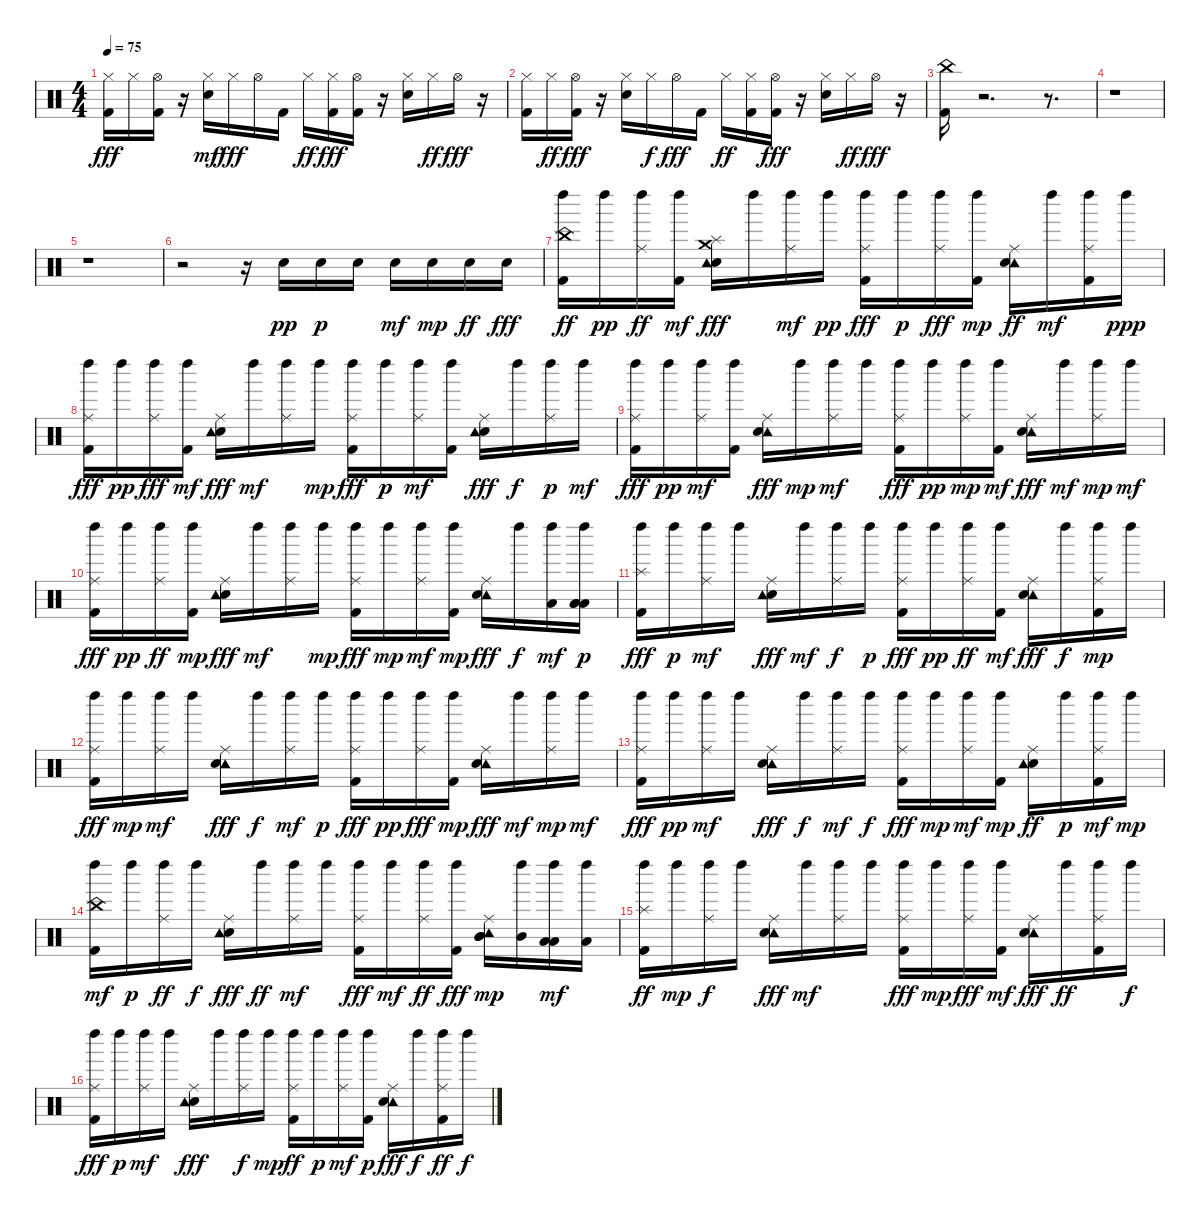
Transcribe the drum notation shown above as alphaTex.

\track "" {instrument percussion}
\staff {score}
\articulation defaults
\ts (4 4)
\tempo 75
\clef neutral
\ks c
("Hi-Hat (closed)" "Kick (hit) 2").16{dy fff} "Hi-Hat (closed)".16 ("Kick (hit) 2" "Hi-Hat (open)").16 r.16 ("Electric Snare (hit)" "Hi-Hat (closed)").16{dy mf} "Hi-Hat (closed)".16{dy fff} "Hi-Hat (open)".16 "Kick (hit) 2".16 "Hi-Hat (closed)".16{dy ff} ("Kick (hit) 2" "Hi-Hat (closed)").16{dy fff} ("Hi-Hat (open)" "Kick (hit) 2").16 r.16 ("Hi-Hat (closed)" "Electric Snare (hit)").16 "Hi-Hat (closed)".16{dy ff} "Hi-Hat (open)".16{dy fff} r.16 |
("Kick (hit) 2" "Hi-Hat (closed)").16 "Hi-Hat (closed)".16{dy ff} ("Kick (hit) 2" "Hi-Hat (open)").16{dy fff} r.16 ("Hi-Hat (closed)" "Electric Snare (hit)").16 "Hi-Hat (closed)".16{dy f} "Hi-Hat (open)".16{dy fff} "Kick (hit) 2".16 "Hi-Hat (closed)".16{dy ff} ("Hi-Hat (closed)" "Kick (hit) 2").16 ("Kick (hit) 2" "Hi-Hat (open)").16{dy fff} r.16 ("Hi-Hat (closed)" "Electric Snare (hit)").16 "Hi-Hat (closed)".16{dy ff} "Hi-Hat (open)".16{dy fff} r.16 |
("China (hit)" "Kick (hit) 2").16 r.2{d} r.8{d} |
r.1 |
r.1 |
r.2 r.16 "Electric Snare (hit)".16{dy pp} "Electric Snare (hit)".16{dy p} "Electric Snare (hit)".16 "Electric Snare (hit)".16{dy mf} "Electric Snare (hit)".16{dy mp} "Electric Snare (hit)".16{dy ff} "Electric Snare (hit)".16{dy fff} |
("Left Maraca (hit)" "Kick (hit) 2" "China (hit)").16{dy ff} "Left Maraca (hit)".16{dy pp} ("Ride (middle)" "Left Maraca (hit)").16{dy ff} ("Kick (hit) 2" "Left Maraca (hit)").16{dy mf} ("Crash medium (hit)" "Splash (hit)" "Electric Snare (hit)" "Tambourine (hit)").16{dy fff} "Left Maraca (hit)".16 ("Left Maraca (hit)" "Ride (middle)").16{dy mf} "Left Maraca (hit)".16{dy pp} ("Kick (hit) 2" "Ride (middle)" "Left Maraca (hit)").16{dy fff} "Left Maraca (hit)".16{dy p} ("Ride (middle)" "Left Maraca (hit)").16{dy fff} ("Kick (hit) 2" "Left Maraca (hit)").16{dy mp} ("Tambourine (hit)" "Electric Snare (hit)" "Ride (middle)").16{dy ff} "Left Maraca (hit)".16{dy mf} ("Kick (hit) 2" "Ride (middle)" "Left Maraca (hit)").16 "Left Maraca (hit)".16{dy ppp} |
("Left Maraca (hit)" "Kick (hit) 2" "Ride (middle)").16{dy fff} "Left Maraca (hit)".16{dy pp} ("Left Maraca (hit)" "Ride (middle)").16{dy fff} ("Left Maraca (hit)" "Kick (hit) 2").16{dy mf} ("Ride (middle)" "Electric Snare (hit)" "Tambourine (hit)").16{dy fff} "Left Maraca (hit)".16{dy mf} ("Left Maraca (hit)" "Ride (middle)").16 "Left Maraca (hit)".16{dy mp} ("Kick (hit) 2" "Ride (middle)" "Left Maraca (hit)").16{dy fff} "Left Maraca (hit)".16{dy p} ("Ride (middle)" "Left Maraca (hit)").16{dy mf} ("Left Maraca (hit)" "Kick (hit) 2").16 ("Electric Snare (hit)" "Ride (middle)" "Tambourine (hit)").16{dy fff} "Left Maraca (hit)".16{dy f} ("Ride (middle)" "Left Maraca (hit)").16{dy p} "Left Maraca (hit)".16{dy mf} |
("Ride (middle)" "Kick (hit) 2" "Left Maraca (hit)").16{dy fff} "Left Maraca (hit)".16{dy pp} ("Ride (middle)" "Left Maraca (hit)").16{dy mf} ("Left Maraca (hit)" "Kick (hit) 2").16 ("Ride (middle)" "Tambourine (hit)" "Electric Snare (hit)").16{dy fff} "Left Maraca (hit)".16{dy mp} ("Left Maraca (hit)" "Ride (middle)").16{dy mf} "Left Maraca (hit)".16 ("Ride (middle)" "Kick (hit) 2" "Left Maraca (hit)").16{dy fff} "Left Maraca (hit)".16{dy pp} ("Ride (middle)" "Left Maraca (hit)").16{dy mp} ("Left Maraca (hit)" "Kick (hit) 2").16{dy mf} ("Tambourine (hit)" "Ride (middle)" "Electric Snare (hit)").16{dy fff} "Left Maraca (hit)".16{dy mf} ("Left Maraca (hit)" "Ride (middle)").16{dy mp} "Left Maraca (hit)".16{dy mf} |
("Ride (middle)" "Kick (hit) 2" "Left Maraca (hit)").16{dy fff} "Left Maraca (hit)".16{dy pp} ("Left Maraca (hit)" "Ride (middle)").16{dy ff} ("Kick (hit) 2" "Left Maraca (hit)").16{dy mp} ("Electric Snare (hit)" "Tambourine (hit)" "Ride (middle)").16{dy fff} "Left Maraca (hit)".16{dy mf} ("Left Maraca (hit)" "Ride (middle)").16 "Left Maraca (hit)".16{dy mp} ("Kick (hit) 2" "Ride (middle)" "Left Maraca (hit)").16{dy fff} "Left Maraca (hit)".16{dy mp} ("Left Maraca (hit)" "Ride (middle)").16{dy mf} ("Kick (hit) 2" "Left Maraca (hit)").16{dy mp} ("Ride (middle)" "Tambourine (hit)" "Electric Snare (hit)").16{dy fff} "Left Maraca (hit)".16{dy f} ("Low Tom (hit)" "Left Maraca (hit)").16{dy mf} ("Low Tom (hit)" "Left Maraca (hit)" "Low Tom (hit)" "Low Tom (hit)").16{dy p} |
("Left Maraca (hit)" "Splash (hit)" "Kick (hit) 2").16{dy fff} "Left Maraca (hit)".16{dy p} ("Ride (middle)" "Left Maraca (hit)").16{dy mf} "Left Maraca (hit)".16 ("Ride (middle)" "Electric Snare (hit)" "Tambourine (hit)").16{dy fff} "Left Maraca (hit)".16{dy mf} ("Ride (middle)" "Left Maraca (hit)").16{dy f} "Left Maraca (hit)".16{dy p} ("Ride (middle)" "Kick (hit) 2" "Left Maraca (hit)").16{dy fff} "Left Maraca (hit)".16{dy pp} ("Left Maraca (hit)" "Ride (middle)").16{dy ff} ("Kick (hit) 2" "Left Maraca (hit)").16{dy mf} ("Tambourine (hit)" "Ride (middle)" "Electric Snare (hit)").16{dy fff} "Left Maraca (hit)".16{dy f} ("Left Maraca (hit)" "Ride (middle)" "Kick (hit) 2").16{dy mp} "Left Maraca (hit)".16 |
("Ride (middle)" "Left Maraca (hit)" "Kick (hit) 2").16{dy fff} "Left Maraca (hit)".16{dy mp} ("Left Maraca (hit)" "Ride (middle)").16{dy mf} "Left Maraca (hit)".16 ("Ride (middle)" "Tambourine (hit)" "Electric Snare (hit)").16{dy fff} "Left Maraca (hit)".16{dy f} ("Left Maraca (hit)" "Ride (middle)").16{dy mf} "Left Maraca (hit)".16{dy p} ("Kick (hit) 2" "Ride (middle)" "Left Maraca (hit)").16{dy fff} "Left Maraca (hit)".16{dy pp} ("Ride (middle)" "Left Maraca (hit)").16{dy fff} ("Left Maraca (hit)" "Kick (hit) 2").16{dy mp} ("Ride (middle)" "Tambourine (hit)" "Electric Snare (hit)").16{dy fff} "Left Maraca (hit)".16{dy mf} ("Ride (middle)" "Left Maraca (hit)").16{dy mp} "Left Maraca (hit)".16{dy mf} |
("Ride (middle)" "Kick (hit) 2" "Left Maraca (hit)").16{dy fff} "Left Maraca (hit)".16{dy pp} ("Left Maraca (hit)" "Ride (middle)").16{dy mf} "Left Maraca (hit)".16 ("Ride (middle)" "Tambourine (hit)" "Electric Snare (hit)").16{dy fff} "Left Maraca (hit)".16{dy f} ("Ride (middle)" "Left Maraca (hit)").16{dy mf} "Left Maraca (hit)".16{dy f} ("Ride (middle)" "Left Maraca (hit)" "Kick (hit) 2").16{dy fff} "Left Maraca (hit)".16{dy mp} ("Left Maraca (hit)" "Ride (middle)").16{dy mf} ("Left Maraca (hit)" "Kick (hit) 2").16{dy mp} ("Electric Snare (hit)" "Tambourine (hit)" "Ride (middle)").16{dy ff} "Left Maraca (hit)".16{dy p} ("Ride (middle)" "Kick (hit) 2" "Left Maraca (hit)").16{dy mf} "Left Maraca (hit)".16{dy mp} |
("Kick (hit) 2" "Left Maraca (hit)" "China (hit)").16{dy mf} "Left Maraca (hit)".16{dy p} ("Ride (middle)" "Left Maraca (hit)").16{dy ff} "Left Maraca (hit)".16{dy f} ("Electric Snare (hit)" "Ride (middle)" "Tambourine (hit)").16{dy fff} "Left Maraca (hit)".16{dy ff} ("Ride (middle)" "Left Maraca (hit)").16{dy mf} "Left Maraca (hit)".16 ("Left Maraca (hit)" "Ride (middle)" "Kick (hit) 2").16{dy fff} "Left Maraca (hit)".16{dy mf} ("Left Maraca (hit)" "Ride (middle)").16{dy ff} ("Left Maraca (hit)" "Kick (hit) 2").16{dy fff} ("Tambourine (hit)" "Mid Tom (hit)" "Ride (middle)" "Mid Tom (hit)").16{dy mp} ("Mid Tom (hit)" "Left Maraca (hit)").16 ("Low Tom (hit)" "Low Tom (hit)" "Left Maraca (hit)").16{dy mf} ("Left Maraca (hit)" "Low Tom (hit)").16 |
("Kick (hit) 2" "Left Maraca (hit)" "Splash (hit)").16{dy ff} "Left Maraca (hit)".16{dy mp} ("Left Maraca (hit)" "Ride (middle)").16{dy f} "Left Maraca (hit)".16 ("Tambourine (hit)" "Ride (middle)" "Electric Snare (hit)").16{dy fff} "Left Maraca (hit)".16{dy mf} ("Left Maraca (hit)" "Ride (middle)").16 "Left Maraca (hit)".16 ("Kick (hit) 2" "Ride (middle)" "Left Maraca (hit)").16{dy fff} "Left Maraca (hit)".16{dy mp} ("Ride (middle)" "Left Maraca (hit)").16{dy fff} ("Left Maraca (hit)" "Kick (hit) 2").16{dy mf} ("Tambourine (hit)" "Ride (middle)" "Electric Snare (hit)").16{dy fff} "Left Maraca (hit)".16{dy ff} ("Ride (middle)" "Kick (hit) 2" "Left Maraca (hit)").16 "Left Maraca (hit)".16{dy f} |
("Kick (hit) 2" "Ride (middle)" "Left Maraca (hit)").16{dy fff} "Left Maraca (hit)".16{dy p} ("Ride (middle)" "Left Maraca (hit)").16{dy mf} "Left Maraca (hit)".16 ("Electric Snare (hit)" "Tambourine (hit)" "Ride (middle)").16{dy fff} "Left Maraca (hit)".16 ("Ride (middle)" "Left Maraca (hit)").16{dy f} "Left Maraca (hit)".16{dy mp} ("Ride (middle)" "Left Maraca (hit)" "Kick (hit) 2").16{dy ff} "Left Maraca (hit)".16{dy p} ("Ride (middle)" "Left Maraca (hit)").16{dy mf} ("Left Maraca (hit)" "Kick (hit) 2").16{dy p} ("Ride (middle)" "Tambourine (hit)" "Electric Snare (hit)").16{dy fff} "Left Maraca (hit)".16{dy f} ("Left Maraca (hit)" "Kick (hit) 2" "Ride (middle)").16{dy ff} "Left Maraca (hit)".16{dy f}
